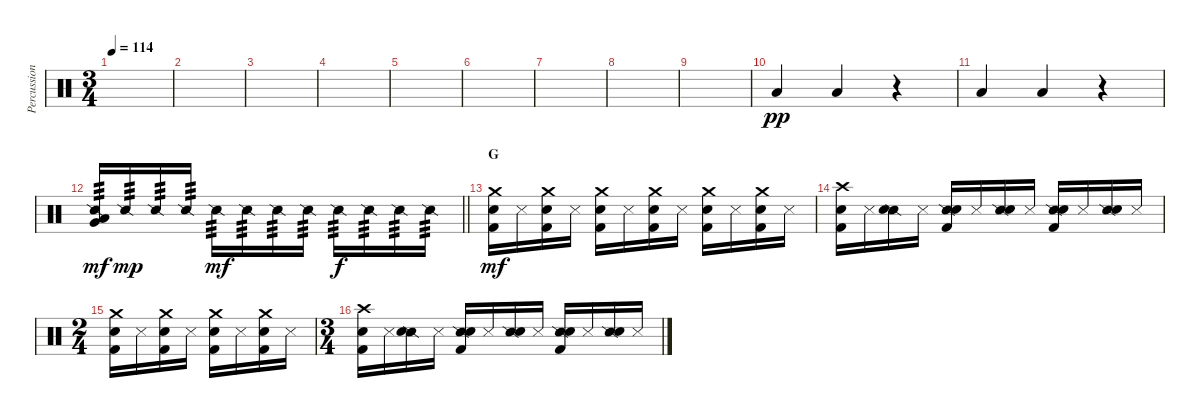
\track ("Percussion" "Percussion") {instrument percussion}
\staff {score}
\articulation defaults
\ts (3 4)
\tempo 114
\clef neutral
\ks c
|
|
|
|
|
|
|
|
|
"Low Floor Tom (hit)".4{dy pp} "Low Floor Tom (hit)".4 r.4 |
"Low Floor Tom (hit)".4 "Low Floor Tom (hit)".4 r.4 |
\barLineRight lightlight
("Snare (side stick) 2" "Very Low Tom (hit)" "Low Floor Tom (hit)").16{tp 3 dy mf} "Snare (side stick) 2".16{tp 3 dy mp} "Snare (side stick) 2".16{tp 3} "Snare (side stick) 2".16{tp 3} "Snare (side stick) 2".16{tp 3 dy mf} "Snare (side stick) 2".16{tp 3} "Snare (side stick) 2".16{tp 3} "Snare (side stick) 2".16{tp 3} "Snare (side stick) 2".16{tp 3 dy f} "Snare (side stick) 2".16{tp 3} "Snare (side stick) 2".16{tp 3} "Snare (side stick) 2".16{tp 3} |
\section ("" "G")
("Crash medium (hit)" "Snare (hit) 2" "Kick (hit) 2").16{dy mf} "Metronome (hit)".16 ("Crash medium (hit)" "Snare (hit) 2" "Kick (hit) 2").16 "Metronome (hit)".16 ("Crash medium (hit)" "Snare (hit) 2" "Kick (hit) 2").16 "Metronome (hit)".16 ("Crash medium (hit)" "Snare (hit) 2" "Kick (hit) 2").16 "Metronome (hit)".16 ("Crash medium (hit)" "Snare (hit) 2" "Kick (hit) 2").16 "Metronome (hit)".16 ("Crash medium (hit)" "Snare (hit) 2" "Kick (hit) 2").16 "Metronome (hit)".16 |
("Crash high (hit)" "Snare (hit) 2" "Kick (hit) 2").16 "Metronome (hit)".16 ("Snare (side stick) 2" "Snare (hit) 2").16 "Metronome (hit)".16 ("Snare (side stick) 2" "Snare (hit) 2" "Kick (hit) 2").16 "Metronome (hit)".16 ("Snare (side stick) 2" "Snare (hit) 2").16 "Metronome (hit)".16 ("Snare (side stick) 2" "Snare (hit) 2" "Kick (hit) 2").16 "Metronome (hit)".16 ("Snare (side stick) 2" "Snare (hit) 2").16 "Metronome (hit)".16 |
\ts (2 4)
("Crash medium (hit)" "Snare (hit) 2" "Kick (hit) 2").16 "Metronome (hit)".16 ("Crash medium (hit)" "Snare (hit) 2" "Kick (hit) 2").16 "Metronome (hit)".16 ("Crash medium (hit)" "Snare (hit) 2" "Kick (hit) 2").16 "Metronome (hit)".16 ("Crash medium (hit)" "Snare (hit) 2" "Kick (hit) 2").16 "Metronome (hit)".16 |
\ts (3 4)
("Crash high (hit)" "Snare (hit) 2" "Kick (hit) 2").16 "Metronome (hit)".16 ("Snare (side stick) 2" "Snare (hit) 2").16 "Metronome (hit)".16 ("Snare (side stick) 2" "Snare (hit) 2" "Kick (hit) 2").16 "Metronome (hit)".16 ("Snare (side stick) 2" "Snare (hit) 2").16 "Metronome (hit)".16 ("Snare (side stick) 2" "Snare (hit) 2" "Kick (hit) 2").16 "Metronome (hit)".16 ("Snare (side stick) 2" "Snare (hit) 2").16 "Metronome (hit)".16
